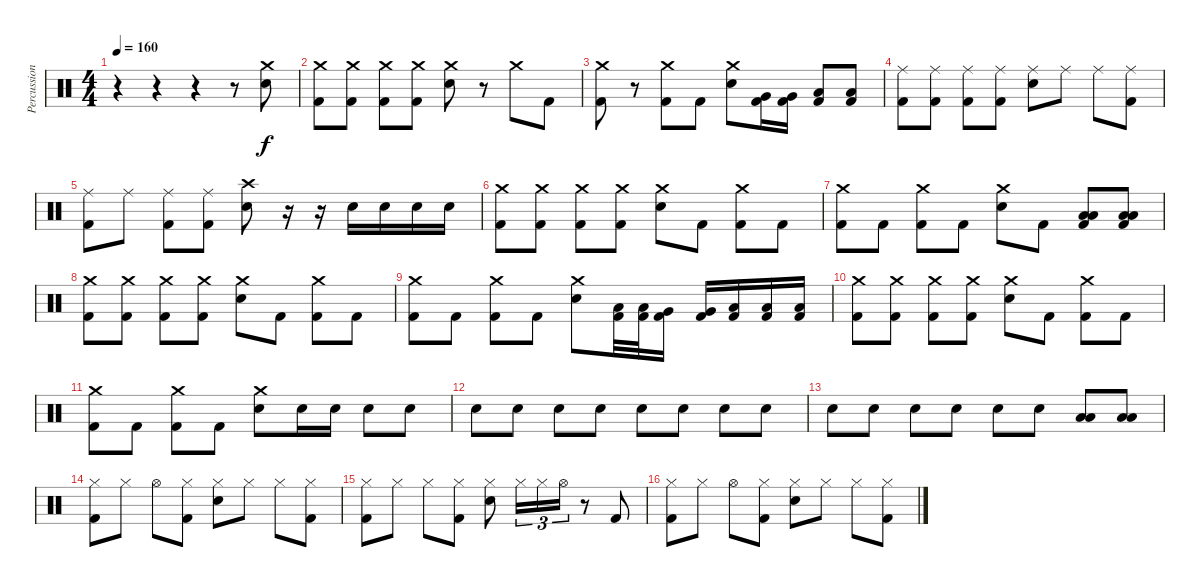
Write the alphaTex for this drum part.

\track ("Percussion" "Percussion") {instrument percussion}
\staff {score}
\articulation defaults
\ts (4 4)
\tempo 160
\clef neutral
\ks c
r.4{dy f} r.4 r.4 r.8 ("Snare (hit) 2" "Crash medium (hit)").8 |
("Kick (hit) 2" "Crash medium (hit)").8 ("Kick (hit) 2" "Crash medium (hit)").8 ("Kick (hit) 2" "Crash medium (hit)").8 ("Kick (hit) 2" "Crash medium (hit)").8 ("Snare (hit) 2" "Crash medium (hit)").8 r.8 "Crash medium (hit)".8 "Kick (hit) 2".8 |
("Kick (hit) 2" "Crash medium (hit)").8 r.8 ("Kick (hit) 2" "Crash medium (hit)").8 "Kick (hit) 2".8 ("Snare (hit) 2" "Crash medium (hit)").8 ("Very Low Tom (hit)" "Kick (hit) 2").16 ("Very Low Tom (hit)" "Kick (hit) 2").16 ("Low Floor Tom (hit)" "Kick (hit) 2").8 ("Low Floor Tom (hit)" "Kick (hit) 2").8 |
("Kick (hit) 2" "Ride (middle)").8 ("Kick (hit) 2" "Ride (middle)").8 ("Kick (hit) 2" "Ride (middle)").8 ("Kick (hit) 2" "Ride (middle)").8 ("Snare (hit) 2" "Ride (middle)").8 "Ride (middle)".8 "Ride (middle)".8 ("Kick (hit) 2" "Ride (middle)").8 |
("Kick (hit) 2" "Ride (middle)").8 "Ride (middle)".8 ("Kick (hit) 2" "Ride (middle)").8 ("Kick (hit) 2" "Ride (middle)").8 ("Snare (hit) 2" "Crash high (hit)").8 r.16 r.16 "Snare (hit) 2".16 "Snare (hit) 2".16 "Snare (hit) 2".16 "Snare (hit) 2".16 |
("Kick (hit) 2" "Crash medium (hit)").8 ("Kick (hit) 2" "Crash medium (hit)").8 ("Kick (hit) 2" "Crash medium (hit)").8 ("Kick (hit) 2" "Crash medium (hit)").8 ("Snare (hit) 2" "Crash medium (hit)").8 "Kick (hit) 2".8 ("Kick (hit) 2" "Crash medium (hit)").8 "Kick (hit) 2".8 |
("Kick (hit) 2" "Crash medium (hit)").8 "Kick (hit) 2".8 ("Kick (hit) 2" "Crash medium (hit)").8 "Kick (hit) 2".8 ("Snare (hit) 2" "Crash medium (hit)").8 "Kick (hit) 2".8 ("Low Floor Tom (hit)" "Low Tom (hit)" "Kick (hit) 2").8 ("Low Floor Tom (hit)" "Low Tom (hit)" "Kick (hit) 2").8 |
("Kick (hit) 2" "Crash medium (hit)").8 ("Kick (hit) 2" "Crash medium (hit)").8 ("Kick (hit) 2" "Crash medium (hit)").8 ("Kick (hit) 2" "Crash medium (hit)").8 ("Snare (hit) 2" "Crash medium (hit)").8 "Kick (hit) 2".8 ("Kick (hit) 2" "Crash medium (hit)").8 "Kick (hit) 2".8 |
("Kick (hit) 2" "Crash medium (hit)").8 "Kick (hit) 2".8 ("Kick (hit) 2" "Crash medium (hit)").8 "Kick (hit) 2".8 ("Snare (hit) 2" "Crash medium (hit)").8 ("Kick (hit) 2" "Low Tom (hit)").32 ("Kick (hit) 2" "Low Tom (hit)").32 ("Kick (hit) 2" "Very Low Tom (hit)").16 ("Kick (hit) 2" "Very Low Tom (hit)").16 ("Kick (hit) 2" "Low Tom (hit)").16 ("Kick (hit) 2" "Low Floor Tom (hit)").16 ("Kick (hit) 2" "Low Floor Tom (hit)").16 |
("Kick (hit) 2" "Crash medium (hit)").8 ("Kick (hit) 2" "Crash medium (hit)").8 ("Kick (hit) 2" "Crash medium (hit)").8 ("Kick (hit) 2" "Crash medium (hit)").8 ("Snare (hit) 2" "Crash medium (hit)").8 "Kick (hit) 2".8 ("Kick (hit) 2" "Crash medium (hit)").8 "Kick (hit) 2".8 |
("Kick (hit) 2" "Crash medium (hit)").8 "Kick (hit) 2".8 ("Kick (hit) 2" "Crash medium (hit)").8 "Kick (hit) 2".8 ("Snare (hit) 2" "Crash medium (hit)").8 "Snare (hit) 2".16 "Snare (hit) 2".16 "Snare (hit) 2".8 "Snare (hit) 2".8 |
"Snare (hit) 2".8 "Snare (hit) 2".8 "Snare (hit) 2".8 "Snare (hit) 2".8 "Snare (hit) 2".8 "Snare (hit) 2".8 "Snare (hit) 2".8 "Snare (hit) 2".8 |
"Snare (hit) 2".8 "Snare (hit) 2".8 "Snare (hit) 2".8 "Snare (hit) 2".8 "Snare (hit) 2".8 "Snare (hit) 2".8 ("Low Floor Tom (hit)" "Low Tom (hit)").8 ("Low Floor Tom (hit)" "Low Tom (hit)").8 |
("Kick (hit) 2" "Hi-Hat (closed)").8 "Hi-Hat (closed)".8 "Hi-Hat (open)".8 ("Kick (hit) 2" "Hi-Hat (closed)").8 ("Snare (hit) 2" "Hi-Hat (closed)").8 "Hi-Hat (closed)".8 "Hi-Hat (closed)".8 ("Kick (hit) 2" "Hi-Hat (closed)").8 |
("Kick (hit) 2" "Hi-Hat (closed)").8 "Hi-Hat (closed)".8 "Hi-Hat (closed)".8 ("Kick (hit) 2" "Hi-Hat (closed)").8 ("Snare (hit) 2" "Hi-Hat (closed)").8 "Hi-Hat (closed)".16{tu (3 2)} "Hi-Hat (closed)".16{tu (3 2)} "Hi-Hat (open)".16{tu (3 2)} r.8 "Kick (hit) 2".8 |
("Kick (hit) 2" "Hi-Hat (closed)").8 "Hi-Hat (closed)".8 "Hi-Hat (open)".8 ("Kick (hit) 2" "Hi-Hat (closed)").8 ("Snare (hit) 2" "Hi-Hat (closed)").8 "Hi-Hat (closed)".8 "Hi-Hat (closed)".8 ("Kick (hit) 2" "Hi-Hat (closed)").8
